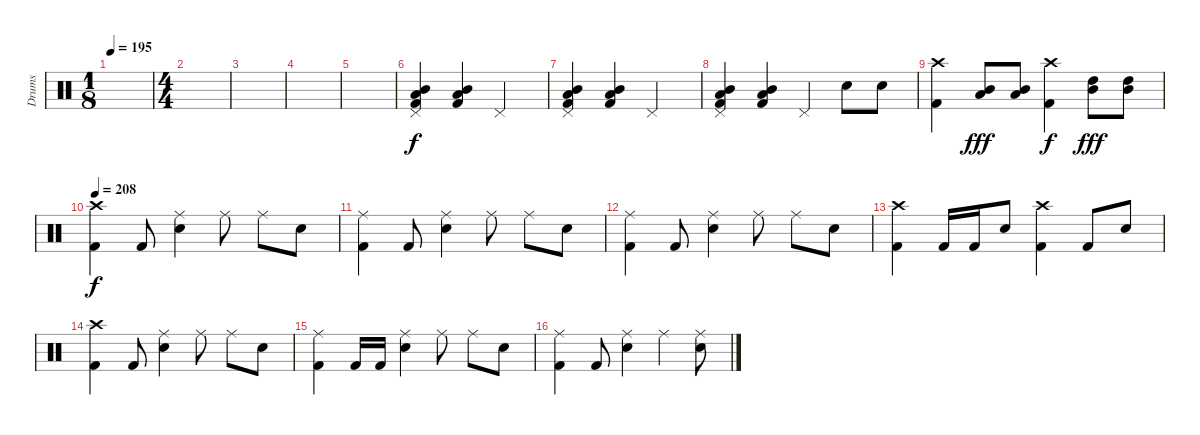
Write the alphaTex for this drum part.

\track ("Drums" "Drums") {instrument percussion}
\staff {score}
\articulation defaults
\ts (1 8)
\tempo 195
\clef neutral
\ks c
|
\ts (4 4)
|
|
|
|
("Pedal Hi-Hat (hit)" "Mid Tom (hit)" "Low Tom (hit)" "Kick (hit) 2").4 ("Mid Tom (hit)" "Low Tom (hit)" "Kick (hit) 2").4 "Pedal Hi-Hat (hit)".2 |
("Pedal Hi-Hat (hit)" "Mid Tom (hit)" "Low Tom (hit)" "Kick (hit) 2").4 ("Mid Tom (hit)" "Low Tom (hit)" "Kick (hit) 2").4 "Pedal Hi-Hat (hit)".2 |
("Pedal Hi-Hat (hit)" "Mid Tom (hit)" "Low Tom (hit)" "Kick (hit) 2").4 ("Mid Tom (hit)" "Low Tom (hit)" "Kick (hit) 2").4 "Pedal Hi-Hat (hit)".4 "Electric Snare (hit)".8 "Electric Snare (hit)".8 |
("Crash high (hit)" "Kick (hit) 2").4 ("Mid Tom (hit)" "Low Tom (hit)").8{dy fff} ("Mid Tom (hit)" "Low Tom (hit)").8 ("Crash high (hit)" "Kick (hit) 2").4{dy f} ("High Tom (hit)" "Mid Tom (hit)").8{dy fff} ("High Tom (hit)" "Mid Tom (hit)").8 |
\tempo 208
("Crash high (hit)" "Kick (hit) 2").4{dy f} "Kick (hit) 2".8 ("Ride (middle)" "Electric Snare (hit)").4 "Ride (middle)".8 "Ride (middle)".8 "Electric Snare (hit)".8 |
("Ride (middle)" "Kick (hit) 2").4 "Kick (hit) 2".8 ("Ride (middle)" "Electric Snare (hit)").4 "Ride (middle)".8 "Ride (middle)".8 "Electric Snare (hit)".8 |
("Ride (middle)" "Kick (hit) 2").4 "Kick (hit) 2".8 ("Ride (middle)" "Electric Snare (hit)").4 "Ride (middle)".8 "Ride (middle)".8 "Electric Snare (hit)".8 |
("Crash high (hit)" "Kick (hit) 2").4 "Kick (hit) 2".16 "Kick (hit) 2".16 "Electric Snare (hit)".8 ("Crash high (hit)" "Kick (hit) 2").4 "Kick (hit) 2".8 "Electric Snare (hit)".8 |
("Crash high (hit)" "Kick (hit) 2").4 "Kick (hit) 2".8 ("Ride (middle)" "Electric Snare (hit)").4 "Ride (middle)".8 "Ride (middle)".8 "Electric Snare (hit)".8 |
("Ride (middle)" "Kick (hit) 2").4 "Kick (hit) 2".16 "Kick (hit) 2".16 ("Ride (middle)" "Electric Snare (hit)").4 "Ride (middle)".8 "Ride (middle)".8 "Electric Snare (hit)".8 |
("Ride (middle)" "Kick (hit) 2").4 "Kick (hit) 2".8 ("Ride (middle)" "Electric Snare (hit)").4 "Ride (middle)".4 ("Ride (middle)" "Electric Snare (hit)").8
